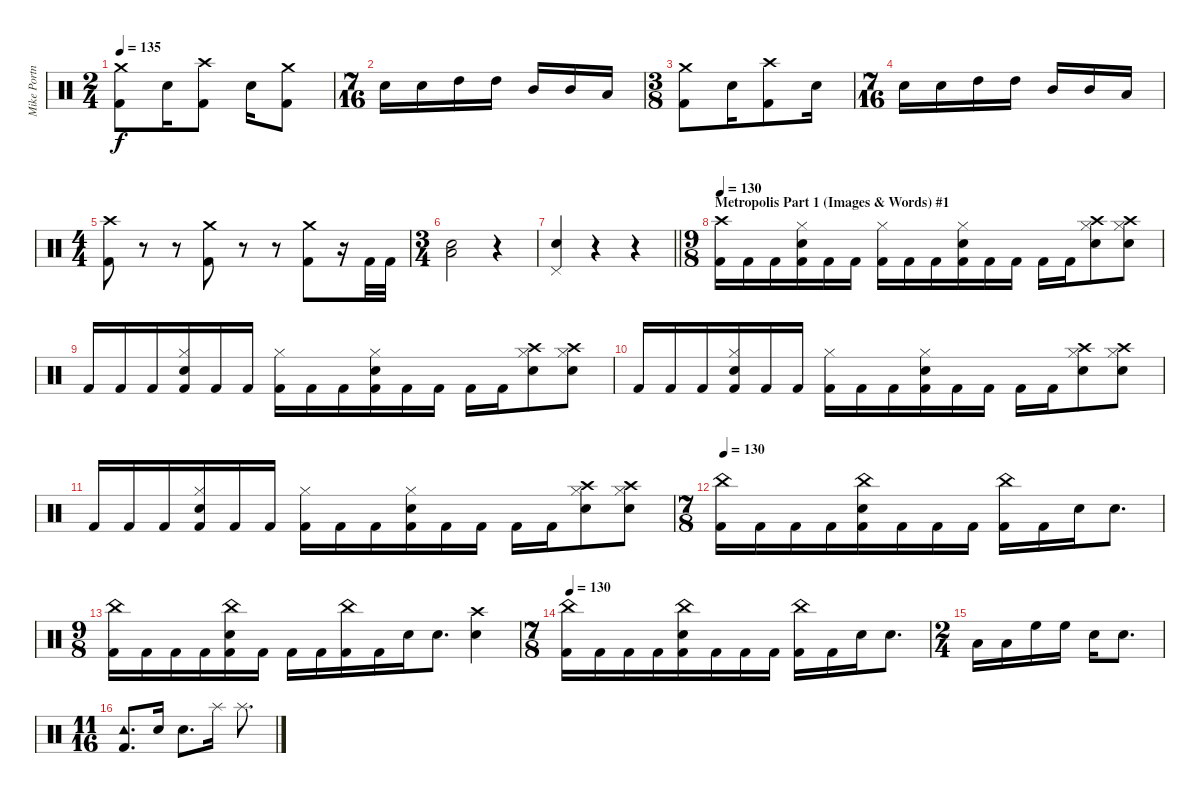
\track ("Mike Portnoy Drums" "Mike Portn") {instrument percussion}
\staff {score}
\articulation defaults
\ts (2 4)
\tempo 135
\clef neutral
\ks c
("Crash medium (hit)" "Kick (hit) 2").8{dy f} "Snare (hit) 2".16 ("Crash high (hit)" "Kick (hit) 2").8 "Snare (hit) 2".16 ("Crash medium (hit)" "Kick (hit) 2").8 |
\ts (7 16)
"Snare (hit) 2".16 "Snare (hit) 2".16 "High Tom (hit)".16 "High Tom (hit)".16 "Mid Tom (hit)".16 "Mid Tom (hit)".16 "Low Tom (hit)".16 |
\ts (3 8)
("Crash medium (hit)" "Kick (hit) 2").8 "Snare (hit) 2".16 ("Crash high (hit)" "Kick (hit) 2").8 "Snare (hit) 2".16 |
\ts (7 16)
"Snare (hit) 2".16 "Snare (hit) 2".16 "High Tom (hit)".16 "High Tom (hit)".16 "Mid Tom (hit)".16 "Mid Tom (hit)".16 "Low Tom (hit)".16 |
\ts (4 4)
("Crash high (hit)" "Kick (hit) 2").8 r.8 r.8 ("Crash medium (hit)" "Kick (hit) 2").8 r.8 r.8 ("Crash medium (hit)" "Kick (hit) 2").8 r.16 "Kick (hit) 2".32 "Kick (hit) 2".32 |
\ts (3 4)
("Snare (hit) 2" "Low Floor Tom (hit)").2 r.4 |
\barLineRight lightlight
("Snare (hit) 2" "Pedal Hi-Hat (hit)").4 r.4 r.4 |
\ts (9 8)
\section ("" "Metropolis Part 1 (Images & Words) #1")
\tempo 130
("Crash high (hit)" "Kick (hit) 2").16 "Kick (hit) 2".16 "Kick (hit) 2".16 ("Hi-Hat (closed)" "Electric Snare (hit)" "Kick (hit) 2").16 "Kick (hit) 2".16 "Kick (hit) 2".16 ("Hi-Hat (closed)" "Kick (hit) 2").16 "Kick (hit) 2".16 "Kick (hit) 2".16 ("Hi-Hat (closed)" "Electric Snare (hit)" "Kick (hit) 2").16 "Kick (hit) 2".16 "Kick (hit) 2".16 "Kick (hit) 2".16 "Kick (hit) 2".16 ("Hi-Hat (closed)" "Electric Snare (hit)" "Crash high (hit)").8 ("Hi-Hat (closed)" "Electric Snare (hit)" "Crash high (hit)").8 |
"Kick (hit) 2".16 "Kick (hit) 2".16 "Kick (hit) 2".16 ("Hi-Hat (closed)" "Electric Snare (hit)" "Kick (hit) 2").16 "Kick (hit) 2".16 "Kick (hit) 2".16 ("Hi-Hat (closed)" "Kick (hit) 2").16 "Kick (hit) 2".16 "Kick (hit) 2".16 ("Hi-Hat (closed)" "Electric Snare (hit)" "Kick (hit) 2").16 "Kick (hit) 2".16 "Kick (hit) 2".16 "Kick (hit) 2".16 "Kick (hit) 2".16 ("Hi-Hat (closed)" "Electric Snare (hit)" "Crash high (hit)").8 ("Hi-Hat (closed)" "Electric Snare (hit)" "Crash high (hit)").8 |
"Kick (hit) 2".16 "Kick (hit) 2".16 "Kick (hit) 2".16 ("Hi-Hat (closed)" "Electric Snare (hit)" "Kick (hit) 2").16 "Kick (hit) 2".16 "Kick (hit) 2".16 ("Hi-Hat (closed)" "Kick (hit) 2").16 "Kick (hit) 2".16 "Kick (hit) 2".16 ("Hi-Hat (closed)" "Electric Snare (hit)" "Kick (hit) 2").16 "Kick (hit) 2".16 "Kick (hit) 2".16 "Kick (hit) 2".16 "Kick (hit) 2".16 ("Hi-Hat (closed)" "Electric Snare (hit)" "Crash high (hit)").8 ("Hi-Hat (closed)" "Electric Snare (hit)" "Crash high (hit)").8 |
"Kick (hit) 2".16 "Kick (hit) 2".16 "Kick (hit) 2".16 ("Hi-Hat (closed)" "Electric Snare (hit)" "Kick (hit) 2").16 "Kick (hit) 2".16 "Kick (hit) 2".16 ("Hi-Hat (closed)" "Kick (hit) 2").16 "Kick (hit) 2".16 "Kick (hit) 2".16 ("Hi-Hat (closed)" "Electric Snare (hit)" "Kick (hit) 2").16 "Kick (hit) 2".16 "Kick (hit) 2".16 "Kick (hit) 2".16 "Kick (hit) 2".16 ("Hi-Hat (closed)" "Electric Snare (hit)" "Crash high (hit)").8 ("Hi-Hat (closed)" "Electric Snare (hit)" "Crash high (hit)").8 |
\ts (7 8)
\tempo 130
("China (hit)" "Kick (hit) 2").16 "Kick (hit) 2".16 "Kick (hit) 2".16 "Kick (hit) 2".16 ("China (hit)" "Electric Snare (hit)" "Kick (hit) 2").16 "Kick (hit) 2".16 "Kick (hit) 2".16 "Kick (hit) 2".16 ("China (hit)" "Kick (hit) 2").16 "Kick (hit) 2".16 "Electric Snare (hit)".16 "Electric Snare (hit)".8{d} |
\ts (9 8)
("China (hit)" "Kick (hit) 2").16 "Kick (hit) 2".16 "Kick (hit) 2".16 "Kick (hit) 2".16 ("China (hit)" "Electric Snare (hit)" "Kick (hit) 2").16 "Kick (hit) 2".16 "Kick (hit) 2".16 "Kick (hit) 2".16 ("China (hit)" "Kick (hit) 2").16 "Kick (hit) 2".16 "Electric Snare (hit)".16 "Electric Snare (hit)".8{d} ("Crash high (hit)" "Electric Snare (hit)").4 |
\ts (7 8)
\tempo 130
("China (hit)" "Kick (hit) 2").16 "Kick (hit) 2".16 "Kick (hit) 2".16 "Kick (hit) 2".16 ("China (hit)" "Electric Snare (hit)" "Kick (hit) 2").16 "Kick (hit) 2".16 "Kick (hit) 2".16 "Kick (hit) 2".16 ("China (hit)" "Kick (hit) 2").16 "Kick (hit) 2".16 "Electric Snare (hit)".16 "Electric Snare (hit)".8{d} |
\ts (2 4)
"Low Tom (hit)".16 "Low Tom (hit)".16 "High Floor Tom (hit)".16 "High Floor Tom (hit)".16 "Electric Snare (hit)".16 "Electric Snare (hit)".8{d} |
\ts (11 16)
("Tambourine (hit)" "Kick (hit) 2").8{d} "Electric Snare (hit)".16 "Electric Snare (hit)".8{d} "Splash (hit)".16 "Splash (hit)".8{d}
